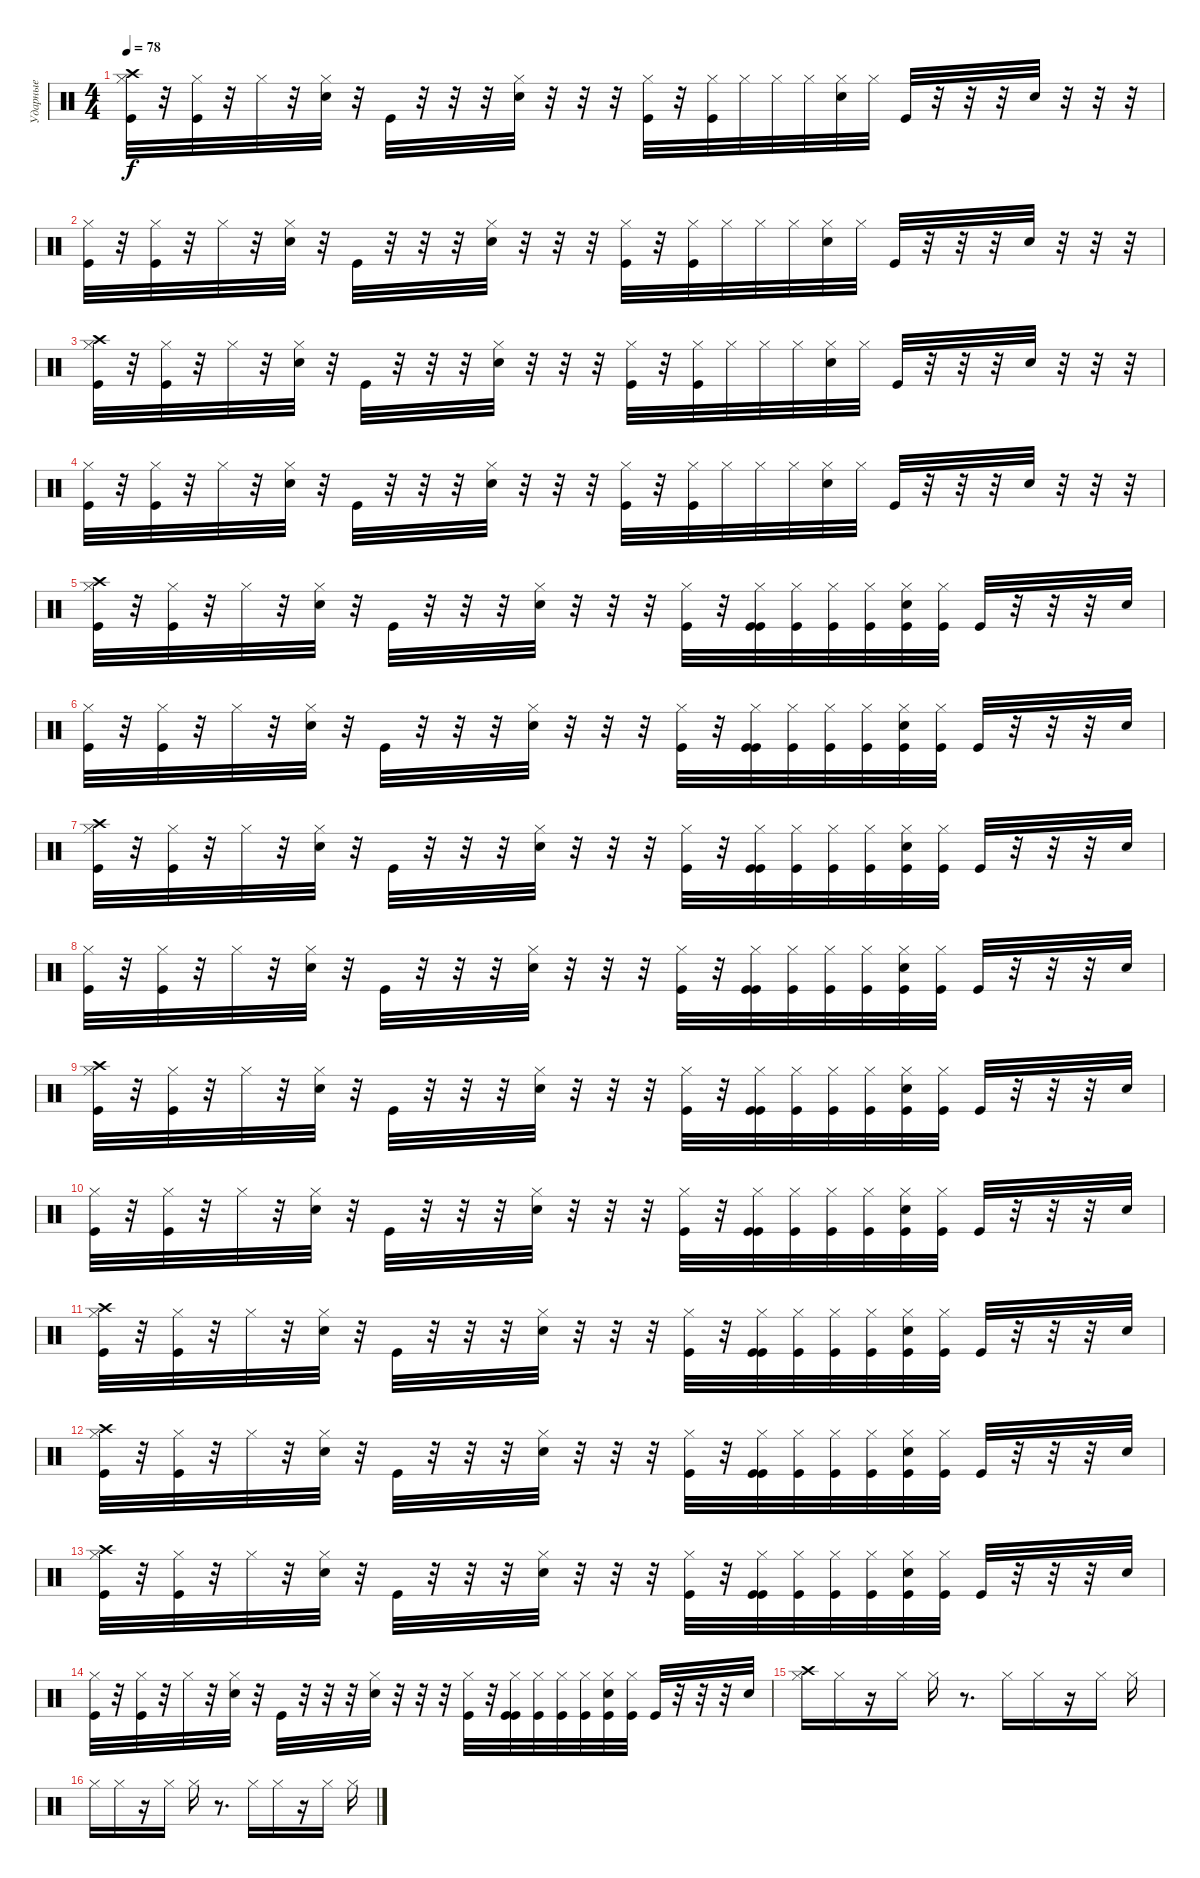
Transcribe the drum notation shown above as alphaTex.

\track ("Ударные" "Ударные") {instrument percussion}
\staff {score}
\articulation defaults
\ts (4 4)
\tempo 78
\clef neutral
\ks c
("Crash high (hit)" "Hi-Hat (closed)" "Kick (hit)").32{dy f} r.32 ("Hi-Hat (closed)" "Kick (hit)").32 r.32 "Hi-Hat (closed)".32 r.32 ("Hi-Hat (closed)" "Electric Snare (hit)").32 r.32 "Kick (hit)".32 r.32 r.32 r.32 ("Hi-Hat (closed)" "Electric Snare (hit)").32 r.32 r.32 r.32 ("Hi-Hat (closed)" "Kick (hit)").32 r.32 ("Hi-Hat (closed)" "Kick (hit)").32 "Hi-Hat (closed)".32 "Hi-Hat (closed)".32 "Hi-Hat (closed)".32 ("Hi-Hat (closed)" "Electric Snare (hit)").32 "Hi-Hat (closed)".32 "Kick (hit)".32 r.32 r.32 r.32 "Electric Snare (hit)".32 r.32 r.32 r.32 |
("Hi-Hat (closed)" "Kick (hit)").32 r.32 ("Hi-Hat (closed)" "Kick (hit)").32 r.32 "Hi-Hat (closed)".32 r.32 ("Hi-Hat (closed)" "Electric Snare (hit)").32 r.32 "Kick (hit)".32 r.32 r.32 r.32 ("Hi-Hat (closed)" "Electric Snare (hit)").32 r.32 r.32 r.32 ("Hi-Hat (closed)" "Kick (hit)").32 r.32 ("Hi-Hat (closed)" "Kick (hit)").32 "Hi-Hat (closed)".32 "Hi-Hat (closed)".32 "Hi-Hat (closed)".32 ("Hi-Hat (closed)" "Electric Snare (hit)").32 "Hi-Hat (closed)".32 "Kick (hit)".32 r.32 r.32 r.32 "Electric Snare (hit)".32 r.32 r.32 r.32 |
("Crash high (hit)" "Hi-Hat (closed)" "Kick (hit)").32 r.32 ("Hi-Hat (closed)" "Kick (hit)").32 r.32 "Hi-Hat (closed)".32 r.32 ("Hi-Hat (closed)" "Electric Snare (hit)").32 r.32 "Kick (hit)".32 r.32 r.32 r.32 ("Hi-Hat (closed)" "Electric Snare (hit)").32 r.32 r.32 r.32 ("Hi-Hat (closed)" "Kick (hit)").32 r.32 ("Hi-Hat (closed)" "Kick (hit)").32 "Hi-Hat (closed)".32 "Hi-Hat (closed)".32 "Hi-Hat (closed)".32 ("Hi-Hat (closed)" "Electric Snare (hit)").32 "Hi-Hat (closed)".32 "Kick (hit)".32 r.32 r.32 r.32 "Electric Snare (hit)".32 r.32 r.32 r.32 |
("Hi-Hat (closed)" "Kick (hit)").32 r.32 ("Hi-Hat (closed)" "Kick (hit)").32 r.32 "Hi-Hat (closed)".32 r.32 ("Hi-Hat (closed)" "Electric Snare (hit)").32 r.32 "Kick (hit)".32 r.32 r.32 r.32 ("Hi-Hat (closed)" "Electric Snare (hit)").32 r.32 r.32 r.32 ("Hi-Hat (closed)" "Kick (hit)").32 r.32 ("Hi-Hat (closed)" "Kick (hit)").32 "Hi-Hat (closed)".32 "Hi-Hat (closed)".32 "Hi-Hat (closed)".32 ("Hi-Hat (closed)" "Electric Snare (hit)").32 "Hi-Hat (closed)".32 "Kick (hit)".32 r.32 r.32 r.32 "Electric Snare (hit)".32 r.32 r.32 r.32 |
("Crash high (hit)" "Hi-Hat (closed)" "Kick (hit)").32 r.32 ("Hi-Hat (closed)" "Kick (hit)").32 r.32 "Hi-Hat (closed)".32 r.32 ("Hi-Hat (closed)" "Electric Snare (hit)").32 r.32 "Kick (hit)".32 r.32 r.32 r.32 ("Hi-Hat (closed)" "Electric Snare (hit)").32 r.32 r.32 r.32 ("Hi-Hat (closed)" "Kick (hit)").32 r.32 ("Hi-Hat (closed)" "Kick (hit)" "Kick (hit)").32 ("Hi-Hat (closed)" "Kick (hit)").32 ("Hi-Hat (closed)" "Kick (hit)").32 ("Hi-Hat (closed)" "Kick (hit)").32 ("Hi-Hat (closed)" "Electric Snare (hit)" "Kick (hit)").32 ("Hi-Hat (closed)" "Kick (hit)").32 "Kick (hit)".32 r.32 r.32 r.32 "Electric Snare (hit)".32 |
("Hi-Hat (closed)" "Kick (hit)").32 r.32 ("Hi-Hat (closed)" "Kick (hit)").32 r.32 "Hi-Hat (closed)".32 r.32 ("Hi-Hat (closed)" "Electric Snare (hit)").32 r.32 "Kick (hit)".32 r.32 r.32 r.32 ("Hi-Hat (closed)" "Electric Snare (hit)").32 r.32 r.32 r.32 ("Hi-Hat (closed)" "Kick (hit)").32 r.32 ("Hi-Hat (closed)" "Kick (hit)" "Kick (hit)").32 ("Hi-Hat (closed)" "Kick (hit)").32 ("Hi-Hat (closed)" "Kick (hit)").32 ("Hi-Hat (closed)" "Kick (hit)").32 ("Hi-Hat (closed)" "Electric Snare (hit)" "Kick (hit)").32 ("Hi-Hat (closed)" "Kick (hit)").32 "Kick (hit)".32 r.32 r.32 r.32 "Electric Snare (hit)".32 |
("Crash high (hit)" "Hi-Hat (closed)" "Kick (hit)").32 r.32 ("Hi-Hat (closed)" "Kick (hit)").32 r.32 "Hi-Hat (closed)".32 r.32 ("Hi-Hat (closed)" "Electric Snare (hit)").32 r.32 "Kick (hit)".32 r.32 r.32 r.32 ("Hi-Hat (closed)" "Electric Snare (hit)").32 r.32 r.32 r.32 ("Hi-Hat (closed)" "Kick (hit)").32 r.32 ("Hi-Hat (closed)" "Kick (hit)" "Kick (hit)").32 ("Hi-Hat (closed)" "Kick (hit)").32 ("Hi-Hat (closed)" "Kick (hit)").32 ("Hi-Hat (closed)" "Kick (hit)").32 ("Hi-Hat (closed)" "Electric Snare (hit)" "Kick (hit)").32 ("Hi-Hat (closed)" "Kick (hit)").32 "Kick (hit)".32 r.32 r.32 r.32 "Electric Snare (hit)".32 |
("Hi-Hat (closed)" "Kick (hit)").32 r.32 ("Hi-Hat (closed)" "Kick (hit)").32 r.32 "Hi-Hat (closed)".32 r.32 ("Hi-Hat (closed)" "Electric Snare (hit)").32 r.32 "Kick (hit)".32 r.32 r.32 r.32 ("Hi-Hat (closed)" "Electric Snare (hit)").32 r.32 r.32 r.32 ("Hi-Hat (closed)" "Kick (hit)").32 r.32 ("Hi-Hat (closed)" "Kick (hit)" "Kick (hit)").32 ("Hi-Hat (closed)" "Kick (hit)").32 ("Hi-Hat (closed)" "Kick (hit)").32 ("Hi-Hat (closed)" "Kick (hit)").32 ("Hi-Hat (closed)" "Electric Snare (hit)" "Kick (hit)").32 ("Hi-Hat (closed)" "Kick (hit)").32 "Kick (hit)".32 r.32 r.32 r.32 "Electric Snare (hit)".32 |
("Crash high (hit)" "Hi-Hat (closed)" "Kick (hit)").32 r.32 ("Hi-Hat (closed)" "Kick (hit)").32 r.32 "Hi-Hat (closed)".32 r.32 ("Hi-Hat (closed)" "Electric Snare (hit)").32 r.32 "Kick (hit)".32 r.32 r.32 r.32 ("Hi-Hat (closed)" "Electric Snare (hit)").32 r.32 r.32 r.32 ("Hi-Hat (closed)" "Kick (hit)").32 r.32 ("Hi-Hat (closed)" "Kick (hit)" "Kick (hit)").32 ("Hi-Hat (closed)" "Kick (hit)").32 ("Hi-Hat (closed)" "Kick (hit)").32 ("Hi-Hat (closed)" "Kick (hit)").32 ("Hi-Hat (closed)" "Electric Snare (hit)" "Kick (hit)").32 ("Hi-Hat (closed)" "Kick (hit)").32 "Kick (hit)".32 r.32 r.32 r.32 "Electric Snare (hit)".32 |
("Hi-Hat (closed)" "Kick (hit)").32 r.32 ("Hi-Hat (closed)" "Kick (hit)").32 r.32 "Hi-Hat (closed)".32 r.32 ("Hi-Hat (closed)" "Electric Snare (hit)").32 r.32 "Kick (hit)".32 r.32 r.32 r.32 ("Hi-Hat (closed)" "Electric Snare (hit)").32 r.32 r.32 r.32 ("Hi-Hat (closed)" "Kick (hit)").32 r.32 ("Hi-Hat (closed)" "Kick (hit)" "Kick (hit)").32 ("Hi-Hat (closed)" "Kick (hit)").32 ("Hi-Hat (closed)" "Kick (hit)").32 ("Hi-Hat (closed)" "Kick (hit)").32 ("Hi-Hat (closed)" "Electric Snare (hit)" "Kick (hit)").32 ("Hi-Hat (closed)" "Kick (hit)").32 "Kick (hit)".32 r.32 r.32 r.32 "Electric Snare (hit)".32 |
("Crash high (hit)" "Hi-Hat (closed)" "Kick (hit)").32 r.32 ("Hi-Hat (closed)" "Kick (hit)").32 r.32 "Hi-Hat (closed)".32 r.32 ("Hi-Hat (closed)" "Electric Snare (hit)").32 r.32 "Kick (hit)".32 r.32 r.32 r.32 ("Hi-Hat (closed)" "Electric Snare (hit)").32 r.32 r.32 r.32 ("Hi-Hat (closed)" "Kick (hit)").32 r.32 ("Hi-Hat (closed)" "Kick (hit)" "Kick (hit)").32 ("Hi-Hat (closed)" "Kick (hit)").32 ("Hi-Hat (closed)" "Kick (hit)").32 ("Hi-Hat (closed)" "Kick (hit)").32 ("Hi-Hat (closed)" "Electric Snare (hit)" "Kick (hit)").32 ("Hi-Hat (closed)" "Kick (hit)").32 "Kick (hit)".32 r.32 r.32 r.32 "Electric Snare (hit)".32 |
("Crash high (hit)" "Hi-Hat (closed)" "Kick (hit)").32 r.32 ("Hi-Hat (closed)" "Kick (hit)").32 r.32 "Hi-Hat (closed)".32 r.32 ("Hi-Hat (closed)" "Electric Snare (hit)").32 r.32 "Kick (hit)".32 r.32 r.32 r.32 ("Hi-Hat (closed)" "Electric Snare (hit)").32 r.32 r.32 r.32 ("Hi-Hat (closed)" "Kick (hit)").32 r.32 ("Hi-Hat (closed)" "Kick (hit)" "Kick (hit)").32 ("Hi-Hat (closed)" "Kick (hit)").32 ("Hi-Hat (closed)" "Kick (hit)").32 ("Hi-Hat (closed)" "Kick (hit)").32 ("Hi-Hat (closed)" "Electric Snare (hit)" "Kick (hit)").32 ("Hi-Hat (closed)" "Kick (hit)").32 "Kick (hit)".32 r.32 r.32 r.32 "Electric Snare (hit)".32 |
("Crash high (hit)" "Hi-Hat (closed)" "Kick (hit)").32 r.32 ("Hi-Hat (closed)" "Kick (hit)").32 r.32 "Hi-Hat (closed)".32 r.32 ("Hi-Hat (closed)" "Electric Snare (hit)").32 r.32 "Kick (hit)".32 r.32 r.32 r.32 ("Hi-Hat (closed)" "Electric Snare (hit)").32 r.32 r.32 r.32 ("Hi-Hat (closed)" "Kick (hit)").32 r.32 ("Hi-Hat (closed)" "Kick (hit)" "Kick (hit)").32 ("Hi-Hat (closed)" "Kick (hit)").32 ("Hi-Hat (closed)" "Kick (hit)").32 ("Hi-Hat (closed)" "Kick (hit)").32 ("Hi-Hat (closed)" "Electric Snare (hit)" "Kick (hit)").32 ("Hi-Hat (closed)" "Kick (hit)").32 "Kick (hit)".32 r.32 r.32 r.32 "Electric Snare (hit)".32 |
("Hi-Hat (closed)" "Kick (hit)").32 r.32 ("Hi-Hat (closed)" "Kick (hit)").32 r.32 "Hi-Hat (closed)".32 r.32 ("Hi-Hat (closed)" "Electric Snare (hit)").32 r.32 "Kick (hit)".32 r.32 r.32 r.32 ("Hi-Hat (closed)" "Electric Snare (hit)").32 r.32 r.32 r.32 ("Hi-Hat (closed)" "Kick (hit)").32 r.32 ("Hi-Hat (closed)" "Kick (hit)" "Kick (hit)").32 ("Hi-Hat (closed)" "Kick (hit)").32 ("Hi-Hat (closed)" "Kick (hit)").32 ("Hi-Hat (closed)" "Kick (hit)").32 ("Hi-Hat (closed)" "Electric Snare (hit)" "Kick (hit)").32 ("Hi-Hat (closed)" "Kick (hit)").32 "Kick (hit)".32 r.32 r.32 r.32 "Electric Snare (hit)".32 |
("Crash high (hit)" "Hi-Hat (closed)").16 "Hi-Hat (closed)".16 r.16 "Hi-Hat (closed)".16 "Hi-Hat (closed)".16 r.8{d} "Hi-Hat (closed)".16 "Hi-Hat (closed)".16 r.16 "Hi-Hat (closed)".16 "Hi-Hat (closed)".16 |
"Hi-Hat (closed)".16 "Hi-Hat (closed)".16 r.16 "Hi-Hat (closed)".16 "Hi-Hat (closed)".16 r.8{d} "Hi-Hat (closed)".16 "Hi-Hat (closed)".16 r.16 "Hi-Hat (closed)".16 "Hi-Hat (closed)".16
